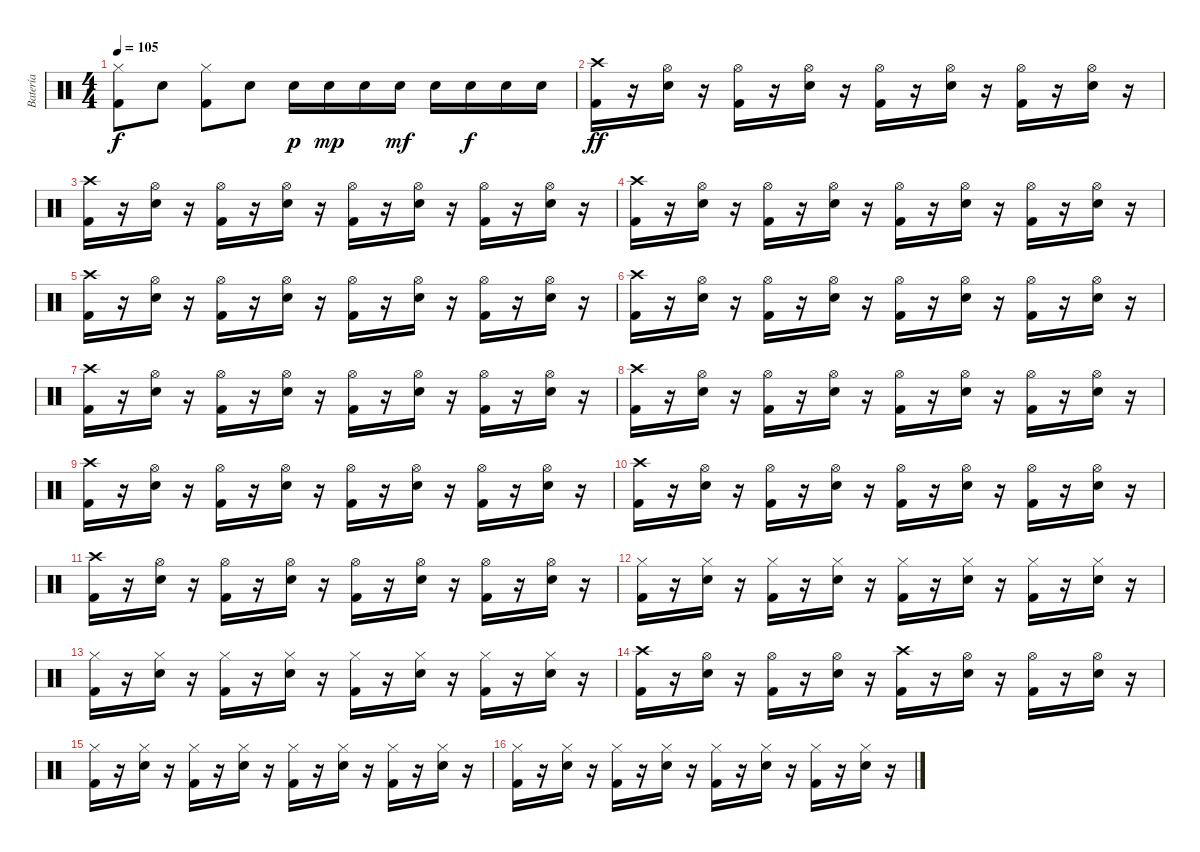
\track ("Batería" "Batería") {instrument percussion}
\staff {score}
\articulation defaults
\ts (4 4)
\tempo 105
\clef neutral
\ks c
("Hi-Hat (closed)" "Kick (hit) 2").8{dy f} "Electric Snare (hit)".8 ("Hi-Hat (closed)" "Kick (hit) 2").8 "Electric Snare (hit)".8 "Electric Snare (hit)".16{dy p} "Electric Snare (hit)".16{dy mp} "Electric Snare (hit)".16 "Electric Snare (hit)".16{dy mf} "Electric Snare (hit)".16 "Electric Snare (hit)".16{dy f} "Electric Snare (hit)".16 "Electric Snare (hit)".16 |
("Crash high (hit)" "Kick (hit) 2").16{dy ff} r.16 ("Hi-Hat (open)" "Electric Snare (hit)").16 r.16 ("Hi-Hat (open)" "Kick (hit) 2").16 r.16 ("Hi-Hat (open)" "Electric Snare (hit)").16 r.16 ("Hi-Hat (open)" "Kick (hit) 2").16 r.16 ("Hi-Hat (open)" "Electric Snare (hit)").16 r.16 ("Hi-Hat (open)" "Kick (hit) 2").16 r.16 ("Hi-Hat (open)" "Electric Snare (hit)").16 r.16 |
("Crash high (hit)" "Kick (hit) 2").16 r.16 ("Hi-Hat (open)" "Electric Snare (hit)").16 r.16 ("Hi-Hat (open)" "Kick (hit) 2").16 r.16 ("Hi-Hat (open)" "Electric Snare (hit)").16 r.16 ("Hi-Hat (open)" "Kick (hit) 2").16 r.16 ("Hi-Hat (open)" "Electric Snare (hit)").16 r.16 ("Hi-Hat (open)" "Kick (hit) 2").16 r.16 ("Hi-Hat (open)" "Electric Snare (hit)").16 r.16 |
("Crash high (hit)" "Kick (hit) 2").16 r.16 ("Hi-Hat (open)" "Electric Snare (hit)").16 r.16 ("Hi-Hat (open)" "Kick (hit) 2").16 r.16 ("Hi-Hat (open)" "Electric Snare (hit)").16 r.16 ("Hi-Hat (open)" "Kick (hit) 2").16 r.16 ("Hi-Hat (open)" "Electric Snare (hit)").16 r.16 ("Hi-Hat (open)" "Kick (hit) 2").16 r.16 ("Hi-Hat (open)" "Electric Snare (hit)").16 r.16 |
("Crash high (hit)" "Kick (hit) 2").16 r.16 ("Hi-Hat (open)" "Electric Snare (hit)").16 r.16 ("Hi-Hat (open)" "Kick (hit) 2").16 r.16 ("Hi-Hat (open)" "Electric Snare (hit)").16 r.16 ("Hi-Hat (open)" "Kick (hit) 2").16 r.16 ("Hi-Hat (open)" "Electric Snare (hit)").16 r.16 ("Hi-Hat (open)" "Kick (hit) 2").16 r.16 ("Hi-Hat (open)" "Electric Snare (hit)").16 r.16 |
("Crash high (hit)" "Kick (hit) 2").16 r.16 ("Hi-Hat (open)" "Electric Snare (hit)").16 r.16 ("Hi-Hat (open)" "Kick (hit) 2").16 r.16 ("Hi-Hat (open)" "Electric Snare (hit)").16 r.16 ("Hi-Hat (open)" "Kick (hit) 2").16 r.16 ("Hi-Hat (open)" "Electric Snare (hit)").16 r.16 ("Hi-Hat (open)" "Kick (hit) 2").16 r.16 ("Hi-Hat (open)" "Electric Snare (hit)").16 r.16 |
("Crash high (hit)" "Kick (hit) 2").16 r.16 ("Hi-Hat (open)" "Electric Snare (hit)").16 r.16 ("Hi-Hat (open)" "Kick (hit) 2").16 r.16 ("Hi-Hat (open)" "Electric Snare (hit)").16 r.16 ("Hi-Hat (open)" "Kick (hit) 2").16 r.16 ("Hi-Hat (open)" "Electric Snare (hit)").16 r.16 ("Hi-Hat (open)" "Kick (hit) 2").16 r.16 ("Hi-Hat (open)" "Electric Snare (hit)").16 r.16 |
("Crash high (hit)" "Kick (hit) 2").16 r.16 ("Hi-Hat (open)" "Electric Snare (hit)").16 r.16 ("Hi-Hat (open)" "Kick (hit) 2").16 r.16 ("Hi-Hat (open)" "Electric Snare (hit)").16 r.16 ("Hi-Hat (open)" "Kick (hit) 2").16 r.16 ("Hi-Hat (open)" "Electric Snare (hit)").16 r.16 ("Hi-Hat (open)" "Kick (hit) 2").16 r.16 ("Hi-Hat (open)" "Electric Snare (hit)").16 r.16 |
("Crash high (hit)" "Kick (hit) 2").16 r.16 ("Hi-Hat (open)" "Electric Snare (hit)").16 r.16 ("Hi-Hat (open)" "Kick (hit) 2").16 r.16 ("Hi-Hat (open)" "Electric Snare (hit)").16 r.16 ("Hi-Hat (open)" "Kick (hit) 2").16 r.16 ("Hi-Hat (open)" "Electric Snare (hit)").16 r.16 ("Hi-Hat (open)" "Kick (hit) 2").16 r.16 ("Hi-Hat (open)" "Electric Snare (hit)").16 r.16 |
("Crash high (hit)" "Kick (hit) 2").16 r.16 ("Hi-Hat (open)" "Electric Snare (hit)").16 r.16 ("Hi-Hat (open)" "Kick (hit) 2").16 r.16 ("Hi-Hat (open)" "Electric Snare (hit)").16 r.16 ("Hi-Hat (open)" "Kick (hit) 2").16 r.16 ("Hi-Hat (open)" "Electric Snare (hit)").16 r.16 ("Hi-Hat (open)" "Kick (hit) 2").16 r.16 ("Hi-Hat (open)" "Electric Snare (hit)").16 r.16 |
("Crash high (hit)" "Kick (hit) 2").16 r.16 ("Hi-Hat (open)" "Electric Snare (hit)").16 r.16 ("Hi-Hat (open)" "Kick (hit) 2").16 r.16 ("Hi-Hat (open)" "Electric Snare (hit)").16 r.16 ("Hi-Hat (open)" "Kick (hit) 2").16 r.16 ("Hi-Hat (open)" "Electric Snare (hit)").16 r.16 ("Hi-Hat (open)" "Kick (hit) 2").16 r.16 ("Hi-Hat (open)" "Electric Snare (hit)").16 r.16 |
("Hi-Hat (closed)" "Kick (hit) 2").16 r.16 ("Hi-Hat (closed)" "Electric Snare (hit)").16 r.16 ("Hi-Hat (closed)" "Kick (hit) 2").16 r.16 ("Hi-Hat (closed)" "Electric Snare (hit)").16 r.16 ("Hi-Hat (closed)" "Kick (hit) 2").16 r.16 ("Hi-Hat (closed)" "Electric Snare (hit)").16 r.16 ("Hi-Hat (closed)" "Kick (hit) 2").16 r.16 ("Hi-Hat (closed)" "Electric Snare (hit)").16 r.16 |
("Hi-Hat (closed)" "Kick (hit) 2").16 r.16 ("Hi-Hat (closed)" "Electric Snare (hit)").16 r.16 ("Hi-Hat (closed)" "Kick (hit) 2").16 r.16 ("Hi-Hat (closed)" "Electric Snare (hit)").16 r.16 ("Hi-Hat (closed)" "Kick (hit) 2").16 r.16 ("Hi-Hat (closed)" "Electric Snare (hit)").16 r.16 ("Hi-Hat (closed)" "Kick (hit) 2").16 r.16 ("Hi-Hat (closed)" "Electric Snare (hit)").16 r.16 |
("Crash high (hit)" "Kick (hit) 2").16 r.16 ("Hi-Hat (open)" "Electric Snare (hit)").16 r.16 ("Hi-Hat (open)" "Kick (hit) 2").16 r.16 ("Hi-Hat (open)" "Electric Snare (hit)").16 r.16 ("Crash high (hit)" "Kick (hit) 2").16 r.16 ("Hi-Hat (open)" "Electric Snare (hit)").16 r.16 ("Hi-Hat (open)" "Kick (hit) 2").16 r.16 ("Hi-Hat (open)" "Electric Snare (hit)").16 r.16 |
("Hi-Hat (closed)" "Kick (hit) 2").16 r.16 ("Hi-Hat (closed)" "Electric Snare (hit)").16 r.16 ("Hi-Hat (closed)" "Kick (hit) 2").16 r.16 ("Hi-Hat (closed)" "Electric Snare (hit)").16 r.16 ("Hi-Hat (closed)" "Kick (hit) 2").16 r.16 ("Hi-Hat (closed)" "Electric Snare (hit)").16 r.16 ("Hi-Hat (closed)" "Kick (hit) 2").16 r.16 ("Hi-Hat (closed)" "Electric Snare (hit)").16 r.16 |
("Hi-Hat (closed)" "Kick (hit) 2").16 r.16 ("Hi-Hat (closed)" "Electric Snare (hit)").16 r.16 ("Hi-Hat (closed)" "Kick (hit) 2").16 r.16 ("Hi-Hat (closed)" "Electric Snare (hit)").16 r.16 ("Hi-Hat (closed)" "Kick (hit) 2").16 r.16 ("Hi-Hat (closed)" "Electric Snare (hit)").16 r.16 ("Hi-Hat (closed)" "Kick (hit) 2").16 r.16 ("Hi-Hat (closed)" "Electric Snare (hit)").16 r.16
